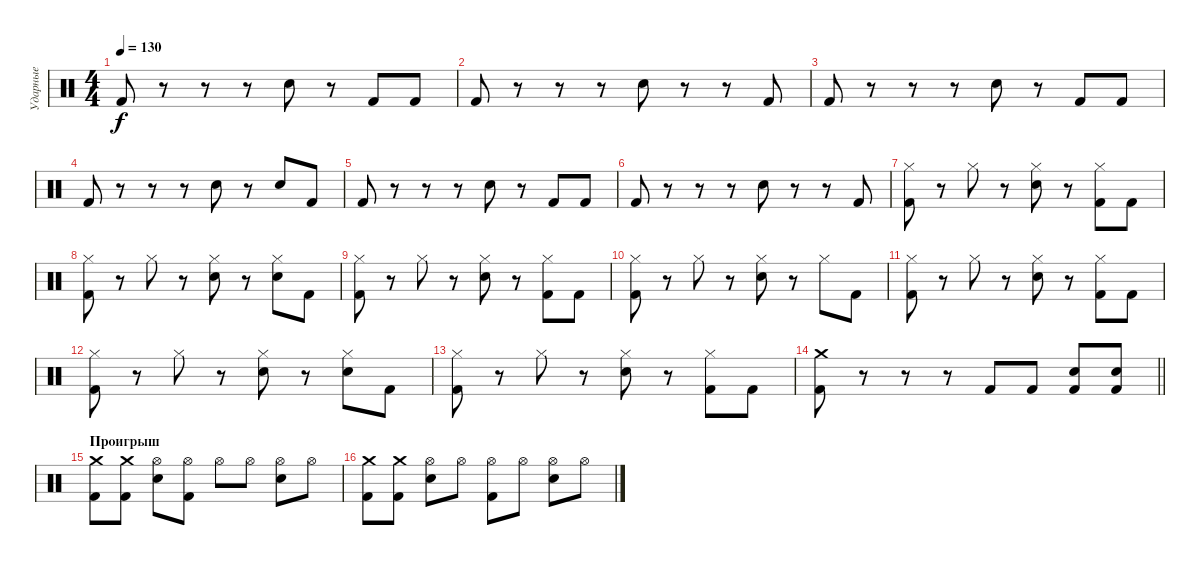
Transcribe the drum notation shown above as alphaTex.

\track ("Ударные" "Ударные") {instrument percussion}
\staff {score}
\articulation defaults
\ts (4 4)
\tempo 130
\clef neutral
\ks c "Kick (hit) 2".8{dy f}
r.8 r.8 r.8 "Snare (hit) 2".8 r.8 "Kick (hit) 2".8 "Kick (hit) 2".8 |
"Kick (hit) 2".8 r.8 r.8 r.8 "Snare (hit) 2".8 r.8 r.8 "Kick (hit) 2".8 |
"Kick (hit) 2".8 r.8 r.8 r.8 "Snare (hit) 2".8 r.8 "Kick (hit) 2".8 "Kick (hit) 2".8 |
"Kick (hit) 2".8 r.8 r.8 r.8 "Snare (hit) 2".8 r.8 "Snare (hit) 2".8 "Kick (hit) 2".8 |
"Kick (hit) 2".8 r.8 r.8 r.8 "Snare (hit) 2".8 r.8 "Kick (hit) 2".8 "Kick (hit) 2".8 |
"Kick (hit) 2".8 r.8 r.8 r.8 "Snare (hit) 2".8 r.8 r.8 "Kick (hit) 2".8 |
("Hi-Hat (closed)" "Kick (hit) 2").8 r.8 "Hi-Hat (closed)".8 r.8 ("Hi-Hat (closed)" "Snare (hit) 2").8 r.8 ("Hi-Hat (closed)" "Kick (hit) 2").8 "Kick (hit) 2".8 |
("Hi-Hat (closed)" "Kick (hit) 2").8 r.8 "Hi-Hat (closed)".8 r.8 ("Hi-Hat (closed)" "Snare (hit) 2").8 r.8 ("Hi-Hat (closed)" "Snare (hit) 2").8 "Kick (hit) 2".8 |
("Hi-Hat (closed)" "Kick (hit) 2").8 r.8 "Hi-Hat (closed)".8 r.8 ("Hi-Hat (closed)" "Snare (hit) 2").8 r.8 ("Hi-Hat (closed)" "Kick (hit) 2").8 "Kick (hit) 2".8 |
("Hi-Hat (closed)" "Kick (hit) 2").8 r.8 "Hi-Hat (closed)".8 r.8 ("Hi-Hat (closed)" "Snare (hit) 2").8 r.8 "Hi-Hat (closed)".8 "Kick (hit) 2".8 |
("Hi-Hat (closed)" "Kick (hit) 2").8 r.8 "Hi-Hat (closed)".8 r.8 ("Hi-Hat (closed)" "Snare (hit) 2").8 r.8 ("Hi-Hat (closed)" "Kick (hit) 2").8 "Kick (hit) 2".8 |
("Hi-Hat (closed)" "Kick (hit) 2").8 r.8 "Hi-Hat (closed)".8 r.8 ("Hi-Hat (closed)" "Snare (hit) 2").8 r.8 ("Hi-Hat (closed)" "Snare (hit) 2").8 "Kick (hit) 2".8 |
("Hi-Hat (closed)" "Kick (hit) 2").8 r.8 "Hi-Hat (closed)".8 r.8 ("Hi-Hat (closed)" "Snare (hit) 2").8 r.8 ("Hi-Hat (closed)" "Kick (hit) 2").8 "Kick (hit) 2".8 |
\barLineRight lightlight
("Crash medium (hit)" "Kick (hit) 2").8 r.8 r.8 r.8 "Kick (hit) 2".8{volume 7} "Kick (hit) 2".8{volume 9} ("Snare (hit) 2" "Kick (hit) 2").8{volume 11} ("Snare (hit) 2" "Kick (hit) 2").8 |
\section ("" "Проигрыш")
("Crash medium (hit)" "Kick (hit) 2").8 ("Crash medium (hit)" "Kick (hit) 2").8 ("Hi-Hat (open)" "Snare (hit) 2").8 ("Hi-Hat (open)" "Kick (hit) 2").8 "Hi-Hat (open)".8 "Hi-Hat (open)".8 ("Hi-Hat (open)" "Snare (hit) 2").8 "Hi-Hat (open)".8 |
("Crash medium (hit)" "Kick (hit) 2").8 ("Crash medium (hit)" "Kick (hit) 2").8 ("Hi-Hat (open)" "Snare (hit) 2").8 "Hi-Hat (open)".8 ("Hi-Hat (open)" "Kick (hit) 2").8 "Hi-Hat (open)".8 ("Hi-Hat (open)" "Snare (hit) 2").8 "Hi-Hat (open)".8
